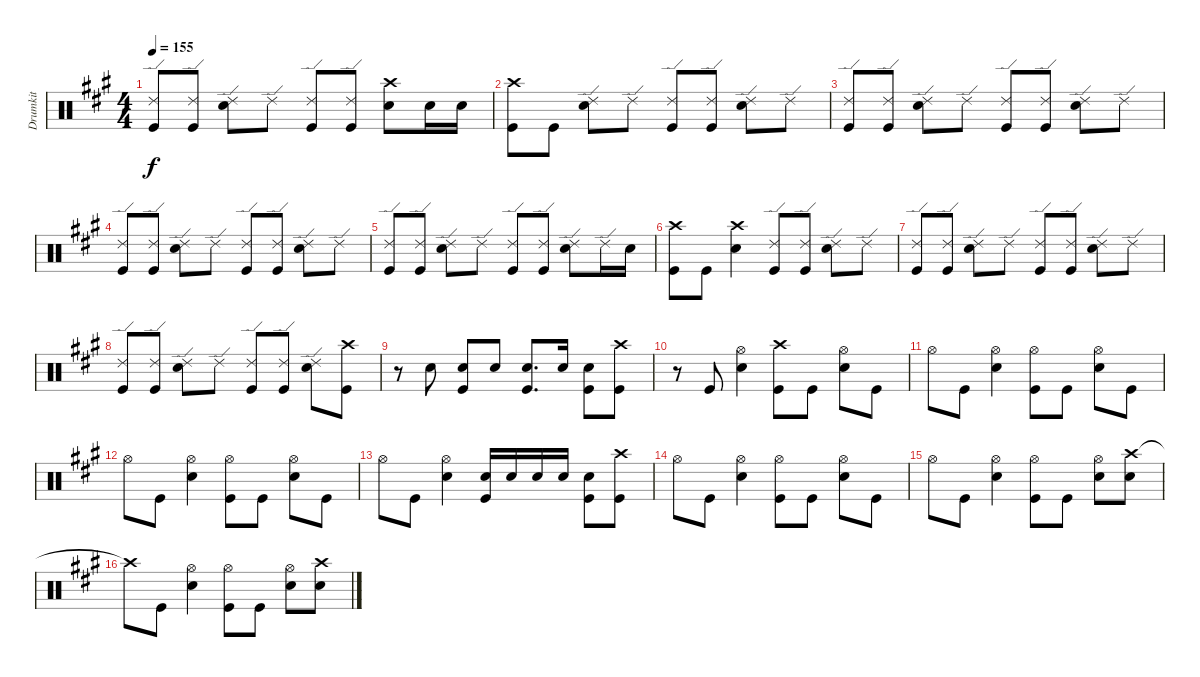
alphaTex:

\track ("Drumkit" "Drumkit") {instrument percussion}
\staff {score}
\articulation defaults
\ts (4 4)
\tempo 155
\clef neutral
\ks a
("Ride (edge) 2" "Kick (hit)").8{dy f} ("Ride (edge) 2" "Kick (hit)").8 ("Ride (edge) 2" "Snare (hit) 2").8 "Ride (edge) 2".8 ("Ride (edge) 2" "Kick (hit)").8 ("Ride (edge) 2" "Kick (hit)").8 ("Crash high (hit)" "Snare (hit) 2").8 "Snare (hit) 2".16 "Snare (hit) 2".16 |
("Crash high (hit)" "Kick (hit)").8 "Kick (hit)".8 ("Ride (edge) 2" "Snare (hit) 2").8 "Ride (edge) 2".8 ("Ride (edge) 2" "Kick (hit)").8 ("Ride (edge) 2" "Kick (hit)").8 ("Ride (edge) 2" "Snare (hit) 2").8 "Ride (edge) 2".8 |
("Ride (edge) 2" "Kick (hit)").8 ("Ride (edge) 2" "Kick (hit)").8 ("Ride (edge) 2" "Snare (hit) 2").8 "Ride (edge) 2".8 ("Ride (edge) 2" "Kick (hit)").8 ("Ride (edge) 2" "Kick (hit)").8 ("Ride (edge) 2" "Snare (hit) 2").8 "Ride (edge) 2".8 |
("Ride (edge) 2" "Kick (hit)").8 ("Ride (edge) 2" "Kick (hit)").8 ("Ride (edge) 2" "Snare (hit) 2").8 "Ride (edge) 2".8 ("Ride (edge) 2" "Kick (hit)").8 ("Ride (edge) 2" "Kick (hit)").8 ("Ride (edge) 2" "Snare (hit) 2").8 "Ride (edge) 2".8 |
("Ride (edge) 2" "Kick (hit)").8 ("Ride (edge) 2" "Kick (hit)").8 ("Ride (edge) 2" "Snare (hit) 2").8 "Ride (edge) 2".8 ("Ride (edge) 2" "Kick (hit)").8 ("Ride (edge) 2" "Kick (hit)").8 ("Ride (edge) 2" "Snare (hit) 2").8 "Ride (edge) 2".16 "Snare (hit) 2".16 |
("Crash high (hit)" "Kick (hit)").8 "Kick (hit)".8 ("Crash high (hit)" "Snare (hit) 2").4 ("Ride (edge) 2" "Kick (hit)").8 ("Ride (edge) 2" "Kick (hit)").8 ("Ride (edge) 2" "Snare (hit) 2").8 "Ride (edge) 2".8 |
("Ride (edge) 2" "Kick (hit)").8 ("Ride (edge) 2" "Kick (hit)").8 ("Ride (edge) 2" "Snare (hit) 2").8 "Ride (edge) 2".8 ("Ride (edge) 2" "Kick (hit)").8 ("Ride (edge) 2" "Kick (hit)").8 ("Ride (edge) 2" "Snare (hit) 2").8 "Ride (edge) 2".8 |
("Ride (edge) 2" "Kick (hit)").8 ("Ride (edge) 2" "Kick (hit)").8 ("Ride (edge) 2" "Snare (hit) 2").8 "Ride (edge) 2".8 ("Ride (edge) 2" "Kick (hit)").8 ("Ride (edge) 2" "Kick (hit)").8 ("Ride (edge) 2" "Snare (hit) 2").8 ("Crash high (hit)" "Kick (hit)").8 |
r.8 "Snare (hit) 2".8 ("Snare (hit) 2" "Kick (hit)").8 "Snare (hit) 2".8 ("Snare (hit) 2" "Kick (hit)").8{d} "Snare (hit) 2".16 ("Snare (hit) 2" "Kick (hit)").8 ("Crash high (hit)" "Kick (hit)").8 |
r.8 "Kick (hit)".8 ("Hi-Hat (open)" "Snare (hit) 2").4 ("Crash high (hit)" "Kick (hit)").8 "Kick (hit)".8 ("Hi-Hat (open)" "Snare (hit) 2").8 "Kick (hit)".8 |
"Hi-Hat (open)".8 "Kick (hit)".8 ("Hi-Hat (open)" "Snare (hit) 2").4 ("Hi-Hat (open)" "Kick (hit)").8 "Kick (hit)".8 ("Hi-Hat (open)" "Snare (hit) 2").8 "Kick (hit)".8 |
"Hi-Hat (open)".8 "Kick (hit)".8 ("Hi-Hat (open)" "Snare (hit) 2").4 ("Hi-Hat (open)" "Kick (hit)").8 "Kick (hit)".8 ("Hi-Hat (open)" "Snare (hit) 2").8 "Kick (hit)".8 |
"Hi-Hat (open)".8 "Kick (hit)".8 ("Hi-Hat (open)" "Snare (hit) 2").4 ("Snare (hit) 2" "Kick (hit)").16 "Snare (hit) 2".16 "Snare (hit) 2".16 "Snare (hit) 2".16 ("Snare (hit) 2" "Kick (hit)").8 ("Crash high (hit)" "Kick (hit)").8 |
"Hi-Hat (open)".8 "Kick (hit)".8 ("Hi-Hat (open)" "Snare (hit) 2").4 ("Hi-Hat (open)" "Kick (hit)").8 "Kick (hit)".8 ("Hi-Hat (open)" "Snare (hit) 2").8 "Kick (hit)".8 |
"Hi-Hat (open)".8 "Kick (hit)".8 ("Hi-Hat (open)" "Snare (hit) 2").4 ("Hi-Hat (open)" "Kick (hit)").8 "Kick (hit)".8 ("Hi-Hat (open)" "Snare (hit) 2").8 ("Crash high (hit)" "Snare (hit) 2").8 |
"Crash high (hit)"{t}.8 "Kick (hit)".8 ("Hi-Hat (open)" "Snare (hit) 2").4 ("Hi-Hat (open)" "Kick (hit)").8 "Kick (hit)".8 ("Hi-Hat (open)" "Snare (hit) 2").8 ("Crash high (hit)" "Snare (hit) 2").8
